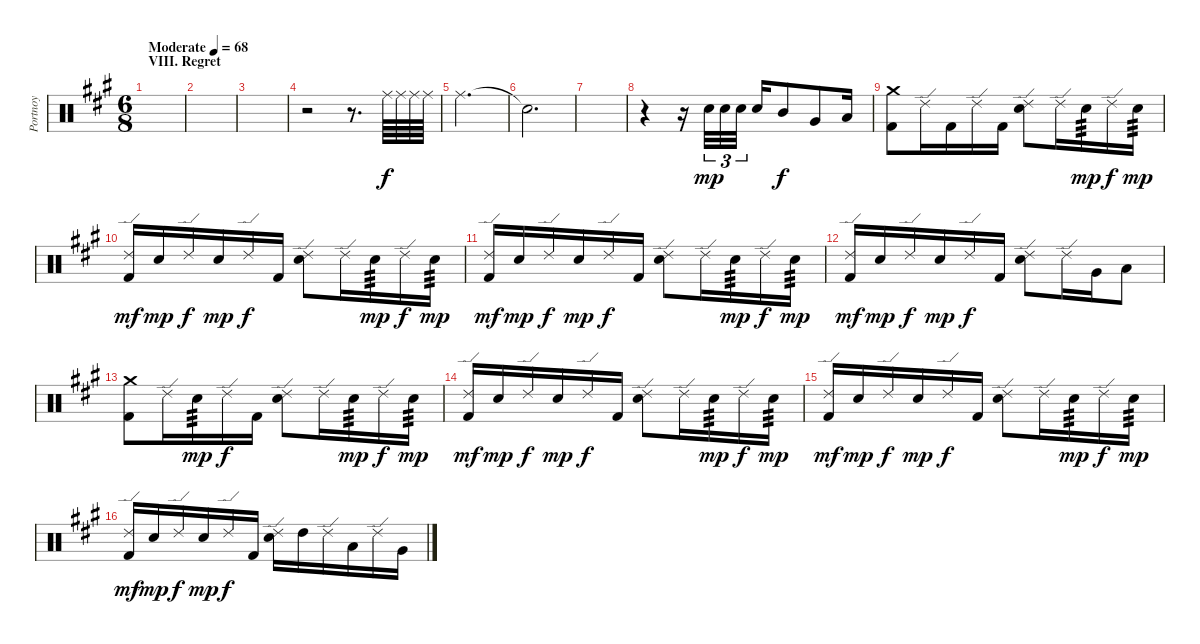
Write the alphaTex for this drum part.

\track ("Portnoy" "Portnoy") {instrument percussion}
\staff {score}
\articulation defaults
\ts (6 8)
\section ("" "VIII. Regret")
\tempo (68 "Moderate")
\clef neutral
\ks a
|
|
|
r.2 r.8{d} "Ride (middle)".64 "Ride (middle)".64 "Ride (middle)".64 "Ride (middle)".64 |
"Ride (middle)".2{d} |
"Snare (hit)"{t}.2{d} |
|
r.4 r.16 "Snare (hit) 2".32{tu (3 2) dy mp} "Snare (hit) 2".32{tu (3 2)} "Snare (hit) 2".32{tu (3 2)} "Snare (hit) 2".16 "Mid Tom (hit)".8{dy f} "Very Low Tom (hit)".8 "Low Floor Tom (hit)".16 |
("Crash medium (hit)" "Kick (hit) 2").8 "Ride (edge) 2".16 "Kick (hit) 2".16 "Ride (edge) 2".16 "Kick (hit) 2".16 ("Ride (edge) 2" "Snare (hit) 2").8 "Ride (edge) 2".16 "Snare (hit) 2".16{tp 3 dy mp} "Ride (edge) 2".16{dy f} "Snare (hit) 2".16{tp 3 dy mp} |
("Ride (edge) 2" "Kick (hit) 2").16{dy mf} "Snare (hit) 2".16{dy mp} "Ride (edge) 2".16{dy f} "Snare (hit) 2".16{dy mp} "Ride (edge) 2".16{dy f} "Kick (hit) 2".16 ("Ride (edge) 2" "Snare (hit) 2").8 "Ride (edge) 2".16 "Snare (hit) 2".16{tp 3 dy mp} "Ride (edge) 2".16{dy f} "Snare (hit) 2".16{tp 3 dy mp} |
("Ride (edge) 2" "Kick (hit) 2").16{dy mf} "Snare (hit) 2".16{dy mp} "Ride (edge) 2".16{dy f} "Snare (hit) 2".16{dy mp} "Ride (edge) 2".16{dy f} "Kick (hit) 2".16 ("Ride (edge) 2" "Snare (hit) 2").8 "Ride (edge) 2".16 "Snare (hit) 2".16{tp 3 dy mp} "Ride (edge) 2".16{dy f} "Snare (hit) 2".16{tp 3 dy mp} |
("Ride (edge) 2" "Kick (hit) 2").16{dy mf} "Snare (hit) 2".16{dy mp} "Ride (edge) 2".16{dy f} "Snare (hit) 2".16{dy mp} "Ride (edge) 2".16{dy f} "Kick (hit) 2".16 ("Ride (edge) 2" "Snare (hit) 2").8 "Ride (edge) 2".16 "Very Low Tom (hit)".16 "Low Floor Tom (hit)".8 |
("Crash medium (hit)" "Kick (hit) 2").8 "Ride (edge) 2".16 "Snare (hit) 2".16{tp 3 dy mp} "Ride (edge) 2".16{dy f} "Kick (hit) 2".16 ("Ride (edge) 2" "Snare (hit) 2").8 "Ride (edge) 2".16 "Snare (hit) 2".16{tp 3 dy mp} "Ride (edge) 2".16{dy f} "Snare (hit) 2".16{tp 3 dy mp} |
("Ride (edge) 2" "Kick (hit) 2").16{dy mf} "Snare (hit) 2".16{dy mp} "Ride (edge) 2".16{dy f} "Snare (hit) 2".16{dy mp} "Ride (edge) 2".16{dy f} "Kick (hit) 2".16 ("Ride (edge) 2" "Snare (hit) 2").8 "Ride (edge) 2".16 "Snare (hit) 2".16{tp 3 dy mp} "Ride (edge) 2".16{dy f} "Snare (hit) 2".16{tp 3 dy mp} |
("Ride (edge) 2" "Kick (hit) 2").16{dy mf} "Snare (hit) 2".16{dy mp} "Ride (edge) 2".16{dy f} "Snare (hit) 2".16{dy mp} "Ride (edge) 2".16{dy f} "Kick (hit) 2".16 ("Ride (edge) 2" "Snare (hit) 2").8 "Ride (edge) 2".16 "Snare (hit) 2".16{tp 3 dy mp} "Ride (edge) 2".16{dy f} "Snare (hit) 2".16{tp 3 dy mp} |
("Ride (edge) 2" "Kick (hit) 2").16{dy mf} "Snare (hit) 2".16{dy mp} "Ride (edge) 2".16{dy f} "Snare (hit) 2".16{dy mp} "Ride (edge) 2".16{dy f} "Kick (hit) 2".16 ("Snare (hit) 2" "Ride (edge) 2").16 "High Tom (hit)".16 "Ride (edge) 2".16 "Low Tom (hit)".16 "Ride (edge) 2".16 "Very Low Tom (hit)".16
